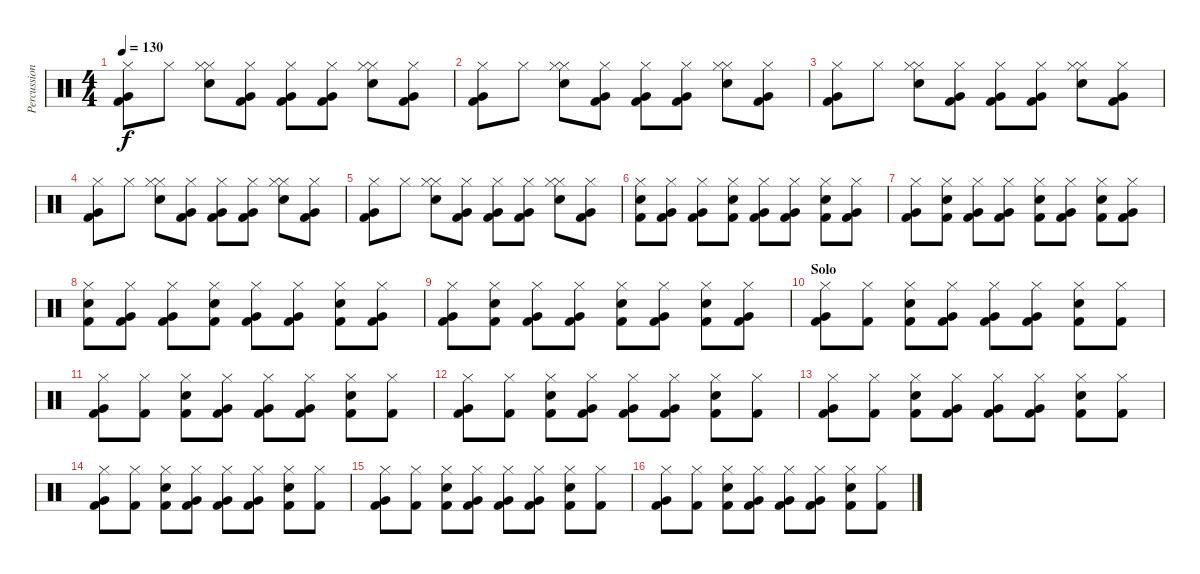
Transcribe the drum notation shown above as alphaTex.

\track ("Percussion" "Percussion") {instrument percussion}
\staff {score}
\articulation defaults
\ts (4 4)
\tempo 130
\clef neutral
\ks c
("Hi-Hat (closed)" "Very Low Tom (hit)" "Kick (hit) 2").8{dy f} "Hi-Hat (closed)".8 ("Hi-Hat (closed)" "Hi-Hat (closed)" "Snare (hit) 2").8 ("Hi-Hat (closed)" "Very Low Tom (hit)" "Kick (hit) 2").8 ("Hi-Hat (closed)" "Very Low Tom (hit)" "Kick (hit) 2").8 ("Hi-Hat (closed)" "Very Low Tom (hit)" "Kick (hit) 2").8 ("Hi-Hat (closed)" "Hi-Hat (closed)" "Snare (hit) 2").8 ("Hi-Hat (closed)" "Very Low Tom (hit)" "Kick (hit) 2").8 |
("Hi-Hat (closed)" "Very Low Tom (hit)" "Kick (hit) 2").8 "Hi-Hat (closed)".8 ("Hi-Hat (closed)" "Hi-Hat (closed)" "Snare (hit) 2").8 ("Hi-Hat (closed)" "Very Low Tom (hit)" "Kick (hit) 2").8 ("Hi-Hat (closed)" "Very Low Tom (hit)" "Kick (hit) 2").8 ("Hi-Hat (closed)" "Very Low Tom (hit)" "Kick (hit) 2").8 ("Hi-Hat (closed)" "Hi-Hat (closed)" "Snare (hit) 2").8 ("Hi-Hat (closed)" "Very Low Tom (hit)" "Kick (hit) 2").8 |
("Hi-Hat (closed)" "Very Low Tom (hit)" "Kick (hit) 2").8 "Hi-Hat (closed)".8 ("Hi-Hat (closed)" "Hi-Hat (closed)" "Snare (hit) 2").8 ("Hi-Hat (closed)" "Very Low Tom (hit)" "Kick (hit) 2").8 ("Hi-Hat (closed)" "Very Low Tom (hit)" "Kick (hit) 2").8 ("Hi-Hat (closed)" "Very Low Tom (hit)" "Kick (hit) 2").8 ("Hi-Hat (closed)" "Hi-Hat (closed)" "Snare (hit) 2").8 ("Hi-Hat (closed)" "Very Low Tom (hit)" "Kick (hit) 2").8 |
("Hi-Hat (closed)" "Very Low Tom (hit)" "Kick (hit) 2").8 "Hi-Hat (closed)".8 ("Hi-Hat (closed)" "Hi-Hat (closed)" "Snare (hit) 2").8 ("Hi-Hat (closed)" "Very Low Tom (hit)" "Kick (hit) 2").8 ("Hi-Hat (closed)" "Very Low Tom (hit)" "Kick (hit) 2").8 ("Hi-Hat (closed)" "Very Low Tom (hit)" "Kick (hit) 2").8 ("Hi-Hat (closed)" "Hi-Hat (closed)" "Snare (hit) 2").8 ("Hi-Hat (closed)" "Very Low Tom (hit)" "Kick (hit) 2").8 |
("Hi-Hat (closed)" "Very Low Tom (hit)" "Kick (hit) 2").8 "Hi-Hat (closed)".8 ("Hi-Hat (closed)" "Hi-Hat (closed)" "Snare (hit) 2").8 ("Hi-Hat (closed)" "Very Low Tom (hit)" "Kick (hit) 2").8 ("Hi-Hat (closed)" "Very Low Tom (hit)" "Kick (hit) 2").8 ("Hi-Hat (closed)" "Very Low Tom (hit)" "Kick (hit) 2").8 ("Hi-Hat (closed)" "Hi-Hat (closed)" "Snare (hit) 2").8 ("Hi-Hat (closed)" "Very Low Tom (hit)" "Kick (hit) 2").8 |
("Hi-Hat (closed)" "Snare (hit) 2" "Kick (hit) 2").8 ("Hi-Hat (closed)" "Very Low Tom (hit)" "Kick (hit) 2").8 ("Hi-Hat (closed)" "Very Low Tom (hit)" "Kick (hit) 2").8 ("Hi-Hat (closed)" "Snare (hit) 2" "Kick (hit) 2").8 ("Hi-Hat (closed)" "Very Low Tom (hit)" "Kick (hit) 2").8 ("Hi-Hat (closed)" "Very Low Tom (hit)" "Kick (hit) 2").8 ("Hi-Hat (closed)" "Snare (hit) 2" "Kick (hit) 2").8 ("Hi-Hat (closed)" "Very Low Tom (hit)" "Kick (hit) 2").8 |
("Hi-Hat (closed)" "Very Low Tom (hit)" "Kick (hit) 2").8 ("Hi-Hat (closed)" "Snare (hit) 2" "Kick (hit) 2").8 ("Hi-Hat (closed)" "Very Low Tom (hit)" "Kick (hit) 2").8 ("Hi-Hat (closed)" "Very Low Tom (hit)" "Kick (hit) 2").8 ("Hi-Hat (closed)" "Snare (hit) 2" "Kick (hit) 2").8 ("Hi-Hat (closed)" "Very Low Tom (hit)" "Kick (hit) 2").8 ("Hi-Hat (closed)" "Snare (hit) 2" "Kick (hit) 2").8 ("Hi-Hat (closed)" "Very Low Tom (hit)" "Kick (hit) 2").8 |
("Hi-Hat (closed)" "Snare (hit) 2" "Kick (hit) 2").8 ("Hi-Hat (closed)" "Very Low Tom (hit)" "Kick (hit) 2").8 ("Hi-Hat (closed)" "Very Low Tom (hit)" "Kick (hit) 2").8 ("Hi-Hat (closed)" "Snare (hit) 2" "Kick (hit) 2").8 ("Hi-Hat (closed)" "Very Low Tom (hit)" "Kick (hit) 2").8 ("Hi-Hat (closed)" "Very Low Tom (hit)" "Kick (hit) 2").8 ("Hi-Hat (closed)" "Snare (hit) 2" "Kick (hit) 2").8 ("Hi-Hat (closed)" "Very Low Tom (hit)" "Kick (hit) 2").8 |
("Hi-Hat (closed)" "Very Low Tom (hit)" "Kick (hit) 2").8 ("Hi-Hat (closed)" "Snare (hit) 2" "Kick (hit) 2").8 ("Hi-Hat (closed)" "Very Low Tom (hit)" "Kick (hit) 2").8 ("Hi-Hat (closed)" "Very Low Tom (hit)" "Kick (hit) 2").8 ("Hi-Hat (closed)" "Snare (hit) 2" "Kick (hit) 2").8 ("Hi-Hat (closed)" "Very Low Tom (hit)" "Kick (hit) 2").8 ("Hi-Hat (closed)" "Snare (hit) 2" "Kick (hit) 2").8 ("Hi-Hat (closed)" "Very Low Tom (hit)" "Kick (hit) 2").8 |
\section ("" "Solo")
("Hi-Hat (closed)" "Very Low Tom (hit)" "Kick (hit) 2").8 ("Hi-Hat (closed)" "Kick (hit) 2").8 ("Hi-Hat (closed)" "Snare (hit) 2" "Kick (hit) 2").8 ("Hi-Hat (closed)" "Very Low Tom (hit)" "Kick (hit) 2").8 ("Hi-Hat (closed)" "Very Low Tom (hit)" "Kick (hit) 2").8 ("Hi-Hat (closed)" "Very Low Tom (hit)" "Kick (hit) 2").8 ("Hi-Hat (closed)" "Snare (hit) 2" "Kick (hit) 2").8 ("Hi-Hat (closed)" "Kick (hit) 2").8 |
("Hi-Hat (closed)" "Very Low Tom (hit)" "Kick (hit) 2").8 ("Hi-Hat (closed)" "Kick (hit) 2").8 ("Hi-Hat (closed)" "Snare (hit) 2" "Kick (hit) 2").8 ("Hi-Hat (closed)" "Very Low Tom (hit)" "Kick (hit) 2").8 ("Hi-Hat (closed)" "Very Low Tom (hit)" "Kick (hit) 2").8 ("Hi-Hat (closed)" "Very Low Tom (hit)" "Kick (hit) 2").8 ("Hi-Hat (closed)" "Snare (hit) 2" "Kick (hit) 2").8 ("Hi-Hat (closed)" "Kick (hit) 2").8 |
("Hi-Hat (closed)" "Very Low Tom (hit)" "Kick (hit) 2").8 ("Hi-Hat (closed)" "Kick (hit) 2").8 ("Hi-Hat (closed)" "Snare (hit) 2" "Kick (hit) 2").8 ("Hi-Hat (closed)" "Very Low Tom (hit)" "Kick (hit) 2").8 ("Hi-Hat (closed)" "Very Low Tom (hit)" "Kick (hit) 2").8 ("Hi-Hat (closed)" "Very Low Tom (hit)" "Kick (hit) 2").8 ("Hi-Hat (closed)" "Snare (hit) 2" "Kick (hit) 2").8 ("Hi-Hat (closed)" "Kick (hit) 2").8 |
("Hi-Hat (closed)" "Very Low Tom (hit)" "Kick (hit) 2").8 ("Hi-Hat (closed)" "Kick (hit) 2").8 ("Hi-Hat (closed)" "Snare (hit) 2" "Kick (hit) 2").8 ("Hi-Hat (closed)" "Very Low Tom (hit)" "Kick (hit) 2").8 ("Hi-Hat (closed)" "Very Low Tom (hit)" "Kick (hit) 2").8 ("Hi-Hat (closed)" "Very Low Tom (hit)" "Kick (hit) 2").8 ("Hi-Hat (closed)" "Snare (hit) 2" "Kick (hit) 2").8 ("Hi-Hat (closed)" "Kick (hit) 2").8 |
("Hi-Hat (closed)" "Very Low Tom (hit)" "Kick (hit) 2").8 ("Hi-Hat (closed)" "Kick (hit) 2").8 ("Hi-Hat (closed)" "Snare (hit) 2" "Kick (hit) 2").8 ("Hi-Hat (closed)" "Very Low Tom (hit)" "Kick (hit) 2").8 ("Hi-Hat (closed)" "Very Low Tom (hit)" "Kick (hit) 2").8 ("Hi-Hat (closed)" "Very Low Tom (hit)" "Kick (hit) 2").8 ("Hi-Hat (closed)" "Snare (hit) 2" "Kick (hit) 2").8 ("Hi-Hat (closed)" "Kick (hit) 2").8 |
("Hi-Hat (closed)" "Very Low Tom (hit)" "Kick (hit) 2").8 ("Hi-Hat (closed)" "Kick (hit) 2").8 ("Hi-Hat (closed)" "Snare (hit) 2" "Kick (hit) 2").8 ("Hi-Hat (closed)" "Very Low Tom (hit)" "Kick (hit) 2").8 ("Hi-Hat (closed)" "Very Low Tom (hit)" "Kick (hit) 2").8 ("Hi-Hat (closed)" "Very Low Tom (hit)" "Kick (hit) 2").8 ("Hi-Hat (closed)" "Snare (hit) 2" "Kick (hit) 2").8 ("Hi-Hat (closed)" "Kick (hit) 2").8 |
("Hi-Hat (closed)" "Very Low Tom (hit)" "Kick (hit) 2").8 ("Hi-Hat (closed)" "Kick (hit) 2").8 ("Hi-Hat (closed)" "Snare (hit) 2" "Kick (hit) 2").8 ("Hi-Hat (closed)" "Very Low Tom (hit)" "Kick (hit) 2").8 ("Hi-Hat (closed)" "Very Low Tom (hit)" "Kick (hit) 2").8 ("Hi-Hat (closed)" "Very Low Tom (hit)" "Kick (hit) 2").8 ("Hi-Hat (closed)" "Snare (hit) 2" "Kick (hit) 2").8 ("Hi-Hat (closed)" "Kick (hit) 2").8
